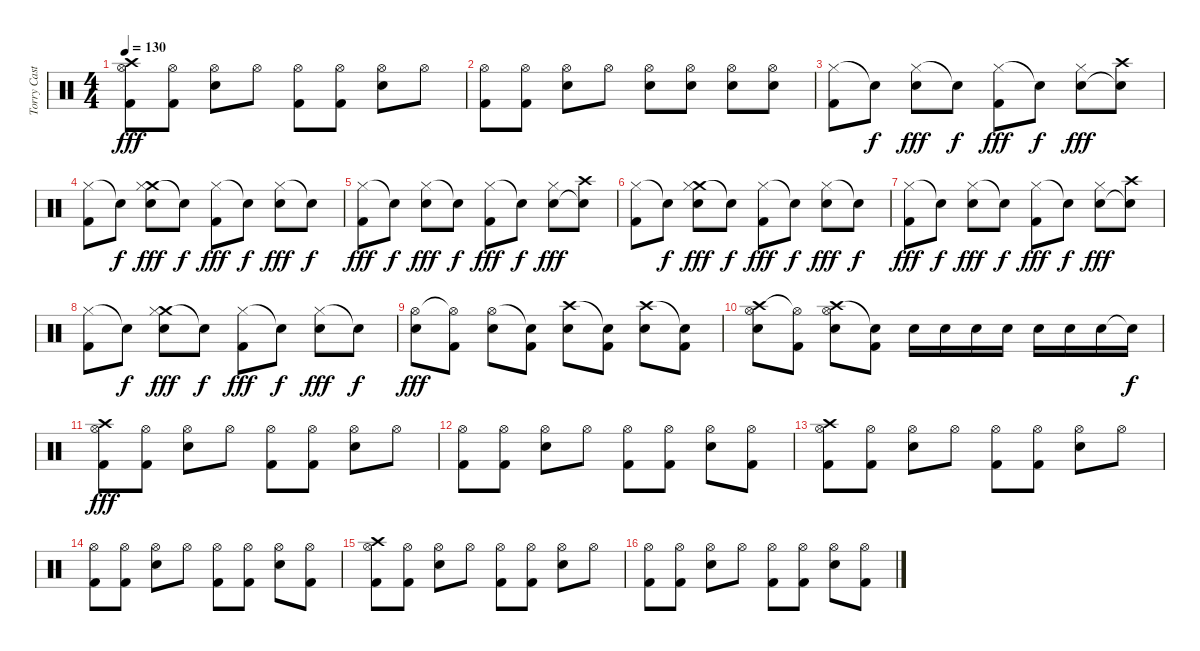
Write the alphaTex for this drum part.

\track ("Torry Castellano" "Torry Cast") {instrument percussion}
\staff {score}
\articulation defaults
\ts (4 4)
\tempo 130
\clef neutral
\ks c
("Crash high (hit)" "Hi-Hat (open)" "Kick (hit) 2").8{dy fff} ("Hi-Hat (open)" "Kick (hit) 2").8 ("Hi-Hat (open)" "Electric Snare (hit)").8 "Hi-Hat (open)".8 ("Hi-Hat (open)" "Kick (hit) 2").8 ("Hi-Hat (open)" "Kick (hit) 2").8 ("Hi-Hat (open)" "Electric Snare (hit)").8 "Hi-Hat (open)".8 |
("Hi-Hat (open)" "Kick (hit) 2").8 ("Hi-Hat (open)" "Kick (hit) 2").8 ("Hi-Hat (open)" "Electric Snare (hit)").8 "Hi-Hat (open)".8 ("Hi-Hat (open)" "Electric Snare (hit)").8 ("Hi-Hat (open)" "Electric Snare (hit)").8 ("Hi-Hat (open)" "Electric Snare (hit)").8 ("Hi-Hat (open)" "Electric Snare (hit)").8 |
("Hi-Hat (closed)" "Kick (hit) 2").8 "Snare (hit)"{t}.8{dy f} ("Hi-Hat (closed)" "Electric Snare (hit)").8{dy fff} "Snare (hit)"{t}.8{dy f} ("Hi-Hat (closed)" "Kick (hit) 2").8{dy fff} "Snare (hit)"{t}.8{dy f} ("Hi-Hat (closed)" "Electric Snare (hit)").8{dy fff} ("Crash high (hit)" "Snare (hit)"{t}).8 |
("Hi-Hat (closed)" "Kick (hit) 2").8 "Snare (hit)"{t}.8{dy f} ("Crash medium (hit)" "Hi-Hat (closed)" "Electric Snare (hit)").8{dy fff} "Snare (hit)"{t}.8{dy f} ("Hi-Hat (closed)" "Kick (hit) 2").8{dy fff} "Snare (hit)"{t}.8{dy f} ("Hi-Hat (closed)" "Electric Snare (hit)").8{dy fff} "Snare (hit)"{t}.8{dy f} |
("Hi-Hat (closed)" "Kick (hit) 2").8{dy fff} "Snare (hit)"{t}.8{dy f} ("Hi-Hat (closed)" "Electric Snare (hit)").8{dy fff} "Snare (hit)"{t}.8{dy f} ("Hi-Hat (closed)" "Kick (hit) 2").8{dy fff} "Snare (hit)"{t}.8{dy f} ("Hi-Hat (closed)" "Electric Snare (hit)").8{dy fff} ("Crash high (hit)" "Snare (hit)"{t}).8 |
("Hi-Hat (closed)" "Kick (hit) 2").8 "Snare (hit)"{t}.8{dy f} ("Crash medium (hit)" "Hi-Hat (closed)" "Electric Snare (hit)").8{dy fff} "Snare (hit)"{t}.8{dy f} ("Hi-Hat (closed)" "Kick (hit) 2").8{dy fff} "Snare (hit)"{t}.8{dy f} ("Hi-Hat (closed)" "Electric Snare (hit)").8{dy fff} "Snare (hit)"{t}.8{dy f} |
("Hi-Hat (closed)" "Kick (hit) 2").8{dy fff} "Snare (hit)"{t}.8{dy f} ("Hi-Hat (closed)" "Electric Snare (hit)").8{dy fff} "Snare (hit)"{t}.8{dy f} ("Hi-Hat (closed)" "Kick (hit) 2").8{dy fff} "Snare (hit)"{t}.8{dy f} ("Hi-Hat (closed)" "Electric Snare (hit)").8{dy fff} ("Crash high (hit)" "Snare (hit)"{t}).8 |
("Hi-Hat (closed)" "Kick (hit) 2").8 "Snare (hit)"{t}.8{dy f} ("Crash medium (hit)" "Hi-Hat (closed)" "Electric Snare (hit)").8{dy fff} "Snare (hit)"{t}.8{dy f} ("Hi-Hat (closed)" "Kick (hit) 2").8{dy fff} "Snare (hit)"{t}.8{dy f} ("Hi-Hat (closed)" "Electric Snare (hit)").8{dy fff} "Snare (hit)"{t}.8{dy f} |
("Hi-Hat (open)" "Electric Snare (hit)").8{dy fff} ("Hi-Hat (open)"{t} "Kick (hit) 2").8 ("Hi-Hat (open)" "Electric Snare (hit)").8 ("Snare (hit)"{t} "Kick (hit) 2").8 ("Crash high (hit)" "Electric Snare (hit)").8 ("Snare (hit)"{t} "Kick (hit) 2").8 ("Crash high (hit)" "Electric Snare (hit)").8 ("Snare (hit)"{t} "Kick (hit) 2").8 |
("Crash high (hit)" "Hi-Hat (open)" "Electric Snare (hit)").8 ("Hi-Hat (open)"{t} "Kick (hit) 2").8 ("Crash high (hit)" "Hi-Hat (open)" "Electric Snare (hit)").8 ("Snare (hit)"{t} "Kick (hit) 2").8 "Electric Snare (hit)".16 "Electric Snare (hit)".16 "Electric Snare (hit)".16 "Electric Snare (hit)".16 "Electric Snare (hit)".16 "Electric Snare (hit)".16 "Electric Snare (hit)".16 "Electric Snare (hit)"{t}.16{dy f} |
("Crash high (hit)" "Hi-Hat (open)" "Kick (hit) 2").8{dy fff} ("Hi-Hat (open)" "Kick (hit) 2").8 ("Hi-Hat (open)" "Electric Snare (hit)").8 "Hi-Hat (open)".8 ("Hi-Hat (open)" "Kick (hit) 2").8 ("Hi-Hat (open)" "Kick (hit) 2").8 ("Hi-Hat (open)" "Electric Snare (hit)").8 "Hi-Hat (open)".8 |
("Hi-Hat (open)" "Kick (hit) 2").8 ("Hi-Hat (open)" "Kick (hit) 2").8 ("Hi-Hat (open)" "Electric Snare (hit)").8 "Hi-Hat (open)".8 ("Hi-Hat (open)" "Kick (hit) 2").8 ("Hi-Hat (open)" "Kick (hit) 2").8 ("Hi-Hat (open)" "Electric Snare (hit)").8 ("Hi-Hat (open)" "Kick (hit) 2").8 |
("Crash high (hit)" "Hi-Hat (open)" "Kick (hit) 2").8 ("Hi-Hat (open)" "Kick (hit) 2").8 ("Hi-Hat (open)" "Electric Snare (hit)").8 "Hi-Hat (open)".8 ("Hi-Hat (open)" "Kick (hit) 2").8 ("Hi-Hat (open)" "Kick (hit) 2").8 ("Hi-Hat (open)" "Electric Snare (hit)").8 "Hi-Hat (open)".8 |
("Hi-Hat (open)" "Kick (hit) 2").8 ("Hi-Hat (open)" "Kick (hit) 2").8 ("Hi-Hat (open)" "Electric Snare (hit)").8 "Hi-Hat (open)".8 ("Hi-Hat (open)" "Kick (hit) 2").8 ("Hi-Hat (open)" "Kick (hit) 2").8 ("Hi-Hat (open)" "Electric Snare (hit)").8 ("Hi-Hat (open)" "Kick (hit) 2").8 |
("Crash high (hit)" "Hi-Hat (open)" "Kick (hit) 2").8 ("Hi-Hat (open)" "Kick (hit) 2").8 ("Hi-Hat (open)" "Electric Snare (hit)").8 "Hi-Hat (open)".8 ("Hi-Hat (open)" "Kick (hit) 2").8 ("Hi-Hat (open)" "Kick (hit) 2").8 ("Hi-Hat (open)" "Electric Snare (hit)").8 "Hi-Hat (open)".8 |
("Hi-Hat (open)" "Kick (hit) 2").8 ("Hi-Hat (open)" "Kick (hit) 2").8 ("Hi-Hat (open)" "Electric Snare (hit)").8 "Hi-Hat (open)".8 ("Hi-Hat (open)" "Kick (hit) 2").8 ("Hi-Hat (open)" "Kick (hit) 2").8 ("Hi-Hat (open)" "Electric Snare (hit)").8 ("Hi-Hat (open)" "Kick (hit) 2").8
